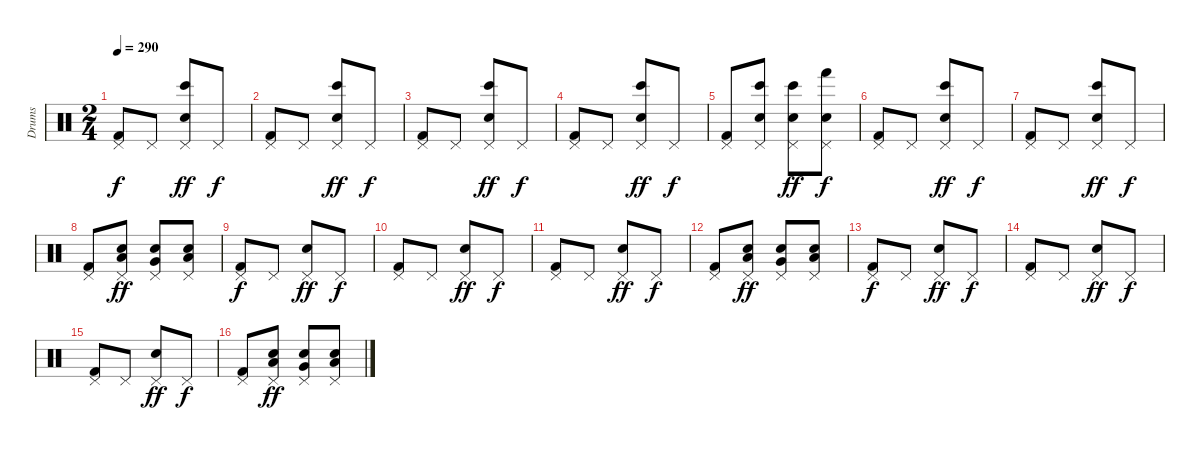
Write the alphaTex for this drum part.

\track ("Drums" "Drums") {instrument percussion}
\staff {score}
\articulation defaults
\ts (2 4)
\tempo 290
\clef neutral
\ks c
("Pedal Hi-Hat (hit)" "Kick (hit) 2").8{dy f} "Pedal Hi-Hat (hit)".8 ("Pedal Hi-Hat (hit)" "Bongo High (hit)" "Electric Snare (hit)").8{dy ff} "Pedal Hi-Hat (hit)".8{dy f} |
("Pedal Hi-Hat (hit)" "Kick (hit) 2").8 "Pedal Hi-Hat (hit)".8 ("Pedal Hi-Hat (hit)" "Bongo High (hit)" "Electric Snare (hit)").8{dy ff} "Pedal Hi-Hat (hit)".8{dy f} |
("Pedal Hi-Hat (hit)" "Kick (hit) 2").8 "Pedal Hi-Hat (hit)".8 ("Pedal Hi-Hat (hit)" "Bongo High (hit)" "Electric Snare (hit)").8{dy ff} "Pedal Hi-Hat (hit)".8{dy f} |
("Pedal Hi-Hat (hit)" "Kick (hit) 2").8 "Pedal Hi-Hat (hit)".8 ("Pedal Hi-Hat (hit)" "Bongo High (hit)" "Electric Snare (hit)").8{dy ff} "Pedal Hi-Hat (hit)".8{dy f} |
("Pedal Hi-Hat (hit)" "Kick (hit) 2").8 ("Pedal Hi-Hat (hit)" "Bongo High (hit)" "Electric Snare (hit)").8 ("Pedal Hi-Hat (hit)" "Bongo High (hit)" "Electric Snare (hit)").8{dy ff} ("Pedal Hi-Hat (hit)" "Hand (hit)" "Electric Snare (hit)").8{dy f} |
("Pedal Hi-Hat (hit)" "Kick (hit) 2").8 "Pedal Hi-Hat (hit)".8 ("Pedal Hi-Hat (hit)" "Bongo High (hit)" "Electric Snare (hit)").8{dy ff} "Pedal Hi-Hat (hit)".8{dy f} |
("Pedal Hi-Hat (hit)" "Kick (hit) 2").8 "Pedal Hi-Hat (hit)".8 ("Pedal Hi-Hat (hit)" "Bongo High (hit)" "Electric Snare (hit)").8{dy ff} "Pedal Hi-Hat (hit)".8{dy f} |
("Pedal Hi-Hat (hit)" "Kick (hit) 2").8 ("Pedal Hi-Hat (hit)" "Low Floor Tom (hit)" "Electric Snare (hit)").8{dy ff} ("Pedal Hi-Hat (hit)" "Very Low Tom (hit)" "Electric Snare (hit)").8 ("Pedal Hi-Hat (hit)" "Low Tom (hit)" "Electric Snare (hit)").8 |
("Pedal Hi-Hat (hit)" "Kick (hit) 2").8{dy f} "Pedal Hi-Hat (hit)".8 ("Pedal Hi-Hat (hit)" "Electric Snare (hit)").8{dy ff} "Pedal Hi-Hat (hit)".8{dy f} |
("Pedal Hi-Hat (hit)" "Kick (hit) 2").8 "Pedal Hi-Hat (hit)".8 ("Pedal Hi-Hat (hit)" "Electric Snare (hit)").8{dy ff} "Pedal Hi-Hat (hit)".8{dy f} |
("Pedal Hi-Hat (hit)" "Kick (hit) 2").8 "Pedal Hi-Hat (hit)".8 ("Pedal Hi-Hat (hit)" "Electric Snare (hit)").8{dy ff} "Pedal Hi-Hat (hit)".8{dy f} |
("Pedal Hi-Hat (hit)" "Kick (hit) 2").8 ("Pedal Hi-Hat (hit)" "Low Floor Tom (hit)" "Electric Snare (hit)").8{dy ff} ("Pedal Hi-Hat (hit)" "Very Low Tom (hit)" "Electric Snare (hit)").8 ("Pedal Hi-Hat (hit)" "Low Tom (hit)" "Electric Snare (hit)").8 |
("Pedal Hi-Hat (hit)" "Kick (hit) 2").8{dy f} "Pedal Hi-Hat (hit)".8 ("Pedal Hi-Hat (hit)" "Electric Snare (hit)").8{dy ff} "Pedal Hi-Hat (hit)".8{dy f} |
("Pedal Hi-Hat (hit)" "Kick (hit) 2").8 "Pedal Hi-Hat (hit)".8 ("Pedal Hi-Hat (hit)" "Electric Snare (hit)").8{dy ff} "Pedal Hi-Hat (hit)".8{dy f} |
("Pedal Hi-Hat (hit)" "Kick (hit) 2").8 "Pedal Hi-Hat (hit)".8 ("Pedal Hi-Hat (hit)" "Electric Snare (hit)").8{dy ff} "Pedal Hi-Hat (hit)".8{dy f} |
("Pedal Hi-Hat (hit)" "Kick (hit) 2").8 ("Pedal Hi-Hat (hit)" "Low Tom (hit)" "Electric Snare (hit)").8{dy ff} ("Pedal Hi-Hat (hit)" "Very Low Tom (hit)" "Electric Snare (hit)").8 ("Pedal Hi-Hat (hit)" "Low Floor Tom (hit)" "Electric Snare (hit)").8
